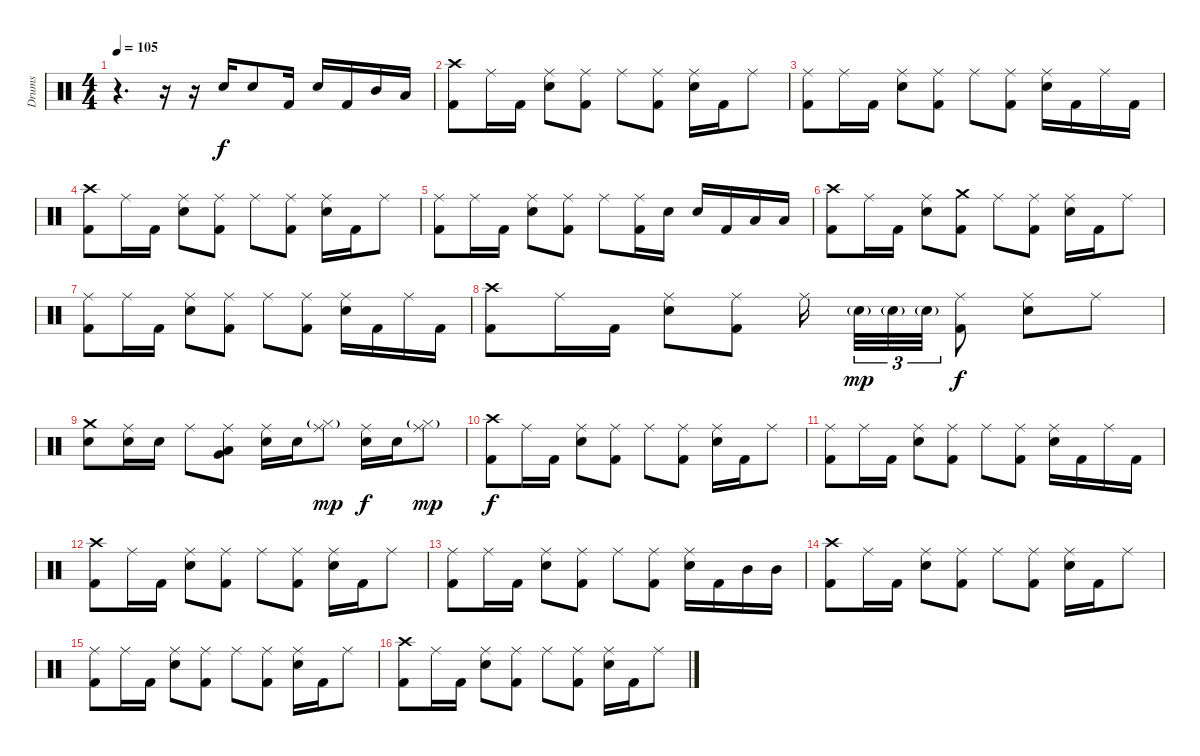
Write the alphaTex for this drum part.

\track ("Drums" "Drums") {instrument percussion}
\staff {score}
\articulation defaults
\ts (4 4)
\tempo 105
\clef neutral
\ks c
r.4{d dy f} r.16 r.16 "Electric Snare (hit)".16 "Electric Snare (hit)".8 "Kick (hit) 2".16 "Electric Snare (hit)".16 "Kick (hit) 2".16 "Mid Tom (hit)".16 "Low Tom (hit)".16 |
("Crash high (hit)" "Kick (hit) 2").8 "Ride (middle)".16 "Kick (hit) 2".16 ("Ride (middle)" "Electric Snare (hit)").8 ("Ride (middle)" "Kick (hit) 2").8 "Ride (middle)".8 ("Ride (middle)" "Kick (hit) 2").8 ("Ride (middle)" "Electric Snare (hit)").16 "Kick (hit) 2".16 "Ride (middle)".8 |
("Ride (middle)" "Kick (hit) 2").8 "Ride (middle)".16 "Kick (hit) 2".16 ("Ride (middle)" "Electric Snare (hit)").8 ("Ride (middle)" "Kick (hit) 2").8 "Ride (middle)".8 ("Ride (middle)" "Kick (hit) 2").8 ("Ride (middle)" "Electric Snare (hit)").16 "Kick (hit) 2".16 "Ride (middle)".16 "Kick (hit) 2".16 |
("Crash high (hit)" "Kick (hit) 2").8 "Ride (middle)".16 "Kick (hit) 2".16 ("Ride (middle)" "Electric Snare (hit)").8 ("Ride (middle)" "Kick (hit) 2").8 "Ride (middle)".8 ("Ride (middle)" "Kick (hit) 2").8 ("Ride (middle)" "Electric Snare (hit)").16 "Kick (hit) 2".16 "Ride (middle)".8 |
("Ride (middle)" "Kick (hit) 2").8 "Ride (middle)".16 "Kick (hit) 2".16 ("Ride (middle)" "Electric Snare (hit)").8 ("Ride (middle)" "Kick (hit) 2").8 "Ride (middle)".8 ("Ride (middle)" "Kick (hit) 2").16 "Electric Snare (hit)".16 "Electric Snare (hit)".16 "Kick (hit) 2".16 "Low Tom (hit)".16 "Low Tom (hit)".16 |
("Crash high (hit)" "Kick (hit) 2").8 "Ride (middle)".16 "Kick (hit) 2".16 ("Ride (middle)" "Electric Snare (hit)").8 ("Crash medium (hit)" "Kick (hit) 2").8 "Ride (middle)".8 ("Ride (middle)" "Kick (hit) 2").8 ("Ride (middle)" "Electric Snare (hit)").16 "Kick (hit) 2".16 "Ride (middle)".8 |
("Ride (middle)" "Kick (hit) 2").8 "Ride (middle)".16 "Kick (hit) 2".16 ("Ride (middle)" "Electric Snare (hit)").8 ("Ride (middle)" "Kick (hit) 2").8 "Ride (middle)".8 ("Ride (middle)" "Kick (hit) 2").8 ("Ride (middle)" "Electric Snare (hit)").16 "Kick (hit) 2".16 "Ride (middle)".16 "Kick (hit) 2".16 |
("Crash high (hit)" "Kick (hit) 2").8 "Ride (middle)".16 "Kick (hit) 2".16 ("Ride (middle)" "Electric Snare (hit)").8 ("Ride (middle)" "Kick (hit) 2").8 "Ride (middle)".16 "Electric Snare (hit)"{g}.32{tu (3 2) dy mp} "Electric Snare (hit)"{g}.32{tu (3 2)} "Electric Snare (hit)"{g}.32{tu (3 2)} ("Ride (middle)" "Kick (hit) 2").8{dy f} ("Ride (middle)" "Electric Snare (hit)").8 "Ride (middle)".8 |
("Crash medium (hit)" "Electric Snare (hit)").8 ("Ride (middle)" "Electric Snare (hit)").16 "Electric Snare (hit)".16 "Ride (middle)".8 ("Ride (middle)" "Low Tom (hit)" "Very Low Tom (hit)").8 ("Ride (middle)" "Electric Snare (hit)").16 "Electric Snare (hit)".16 ("Ride (middle)" "Hi-Hat (closed)"{g}).8{dy mp} ("Ride (middle)" "Electric Snare (hit)").16{dy f} "Electric Snare (hit)".16 ("Ride (middle)" "Hi-Hat (closed)"{g}).8{dy mp} |
("Crash high (hit)" "Kick (hit) 2").8{dy f} "Ride (middle)".16 "Kick (hit) 2".16 ("Ride (middle)" "Electric Snare (hit)").8 ("Ride (middle)" "Kick (hit) 2").8 "Ride (middle)".8 ("Ride (middle)" "Kick (hit) 2").8 ("Ride (middle)" "Electric Snare (hit)").16 "Kick (hit) 2".16 "Ride (middle)".8 |
("Ride (middle)" "Kick (hit) 2").8 "Ride (middle)".16 "Kick (hit) 2".16 ("Ride (middle)" "Electric Snare (hit)").8 ("Ride (middle)" "Kick (hit) 2").8 "Ride (middle)".8 ("Ride (middle)" "Kick (hit) 2").8 ("Ride (middle)" "Electric Snare (hit)").16 "Kick (hit) 2".16 "Ride (middle)".16 "Kick (hit) 2".16 |
("Crash high (hit)" "Kick (hit) 2").8 "Ride (middle)".16 "Kick (hit) 2".16 ("Ride (middle)" "Electric Snare (hit)").8 ("Ride (middle)" "Kick (hit) 2").8 "Ride (middle)".8 ("Ride (middle)" "Kick (hit) 2").8 ("Ride (middle)" "Electric Snare (hit)").16 "Kick (hit) 2".16 "Ride (middle)".8 |
("Ride (middle)" "Kick (hit) 2").8 "Ride (middle)".16 "Kick (hit) 2".16 ("Ride (middle)" "Electric Snare (hit)").8 ("Ride (middle)" "Kick (hit) 2").8 "Ride (middle)".8 ("Ride (middle)" "Kick (hit) 2").8 ("Ride (middle)" "Electric Snare (hit)").16 "Kick (hit) 2".16 "Mid Tom (hit)".16 "Mid Tom (hit)".16 |
("Crash high (hit)" "Kick (hit) 2").8 "Ride (middle)".16 "Kick (hit) 2".16 ("Ride (middle)" "Electric Snare (hit)").8 ("Ride (middle)" "Kick (hit) 2").8 "Ride (middle)".8 ("Ride (middle)" "Kick (hit) 2").8 ("Ride (middle)" "Electric Snare (hit)").16 "Kick (hit) 2".16 "Ride (middle)".8 |
("Ride (middle)" "Kick (hit) 2").8 "Ride (middle)".16 "Kick (hit) 2".16 ("Ride (middle)" "Electric Snare (hit)").8 ("Ride (middle)" "Kick (hit) 2").8 "Ride (middle)".8 ("Ride (middle)" "Kick (hit) 2").8 ("Ride (middle)" "Electric Snare (hit)").16 "Kick (hit) 2".16 "Ride (middle)".8 |
("Crash high (hit)" "Kick (hit) 2").8 "Ride (middle)".16 "Kick (hit) 2".16 ("Ride (middle)" "Electric Snare (hit)").8 ("Ride (middle)" "Kick (hit) 2").8 "Ride (middle)".8 ("Ride (middle)" "Kick (hit) 2").8 ("Ride (middle)" "Electric Snare (hit)").16 "Kick (hit) 2".16 "Ride (middle)".8
